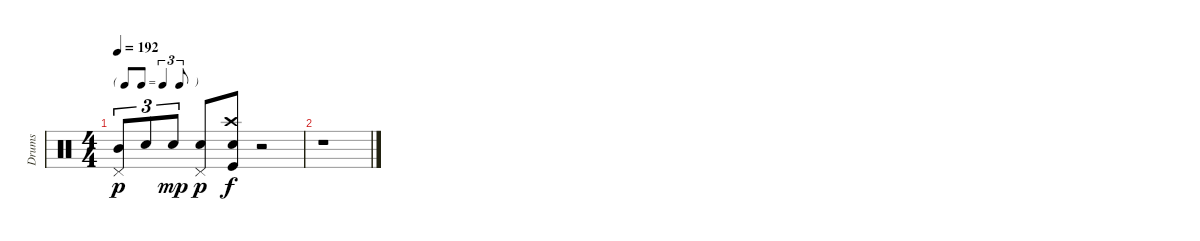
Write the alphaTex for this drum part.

\track ("Drums" "Drums") {instrument percussion}
\staff {score}
\articulation defaults
\ts (4 4)
\tf triplet8th
\tempo 192
\clef neutral
\ks c
("Pedal Hi-Hat (hit)" "Mid Tom (hit)").8{tu (3 2) dy p} "Snare (hit) 2".8{tu (3 2)} "Snare (hit) 2".8{tu (3 2) dy mp} ("Pedal Hi-Hat (hit)" "Snare (hit) 2").8{dy p} ("Crash high (hit)" "Snare (hit) 2" "Kick (hit)").8{dy f} r.2 |
r.1
